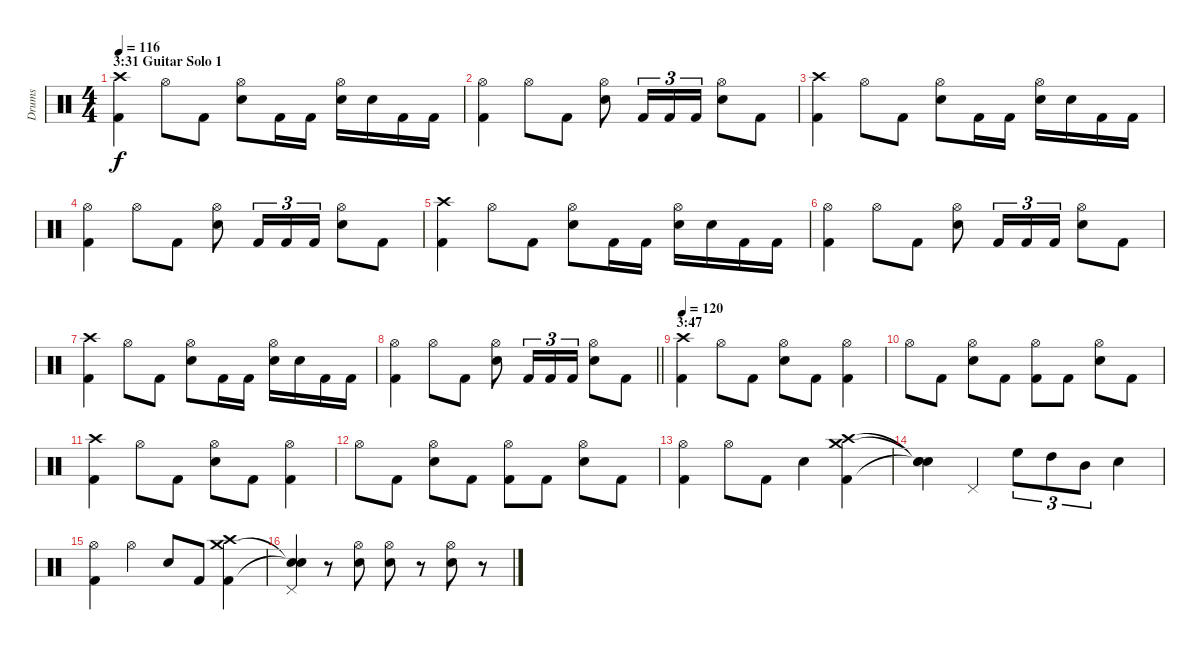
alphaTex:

\track ("Drums" "Drums") {instrument percussion}
\staff {score}
\articulation defaults
\ts (4 4)
\section ("" "3:31 Guitar Solo 1")
\tempo 116
\clef neutral
\ks c
("Crash high (hit)" "Kick (hit) 2").4{dy f} "Hi-Hat (open)".8 "Kick (hit) 2".8 ("Hi-Hat (open)" "Snare (hit) 2").8 "Kick (hit) 2".16 "Kick (hit) 2".16 ("Hi-Hat (open)" "Snare (hit) 2").16 "Snare (hit) 2".16 "Kick (hit) 2".16 "Kick (hit) 2".16 |
("Hi-Hat (open)" "Kick (hit) 2").4 "Hi-Hat (open)".8 "Kick (hit) 2".8 ("Hi-Hat (open)" "Snare (hit) 2").8 "Kick (hit) 2".16{tu (3 2)} "Kick (hit) 2".16{tu (3 2)} "Kick (hit) 2".16{tu (3 2)} ("Hi-Hat (open)" "Snare (hit) 2").8 "Kick (hit) 2".8 |
("Crash high (hit)" "Kick (hit) 2").4 "Hi-Hat (open)".8 "Kick (hit) 2".8 ("Hi-Hat (open)" "Snare (hit) 2").8 "Kick (hit) 2".16 "Kick (hit) 2".16 ("Hi-Hat (open)" "Snare (hit) 2").16 "Snare (hit) 2".16 "Kick (hit) 2".16 "Kick (hit) 2".16 |
("Hi-Hat (open)" "Kick (hit) 2").4 "Hi-Hat (open)".8 "Kick (hit) 2".8 ("Hi-Hat (open)" "Snare (hit) 2").8 "Kick (hit) 2".16{tu (3 2)} "Kick (hit) 2".16{tu (3 2)} "Kick (hit) 2".16{tu (3 2)} ("Hi-Hat (open)" "Snare (hit) 2").8 "Kick (hit) 2".8 |
("Crash high (hit)" "Kick (hit) 2").4 "Hi-Hat (open)".8 "Kick (hit) 2".8 ("Hi-Hat (open)" "Snare (hit) 2").8 "Kick (hit) 2".16 "Kick (hit) 2".16 ("Hi-Hat (open)" "Snare (hit) 2").16 "Snare (hit) 2".16 "Kick (hit) 2".16 "Kick (hit) 2".16 |
("Hi-Hat (open)" "Kick (hit) 2").4 "Hi-Hat (open)".8 "Kick (hit) 2".8 ("Hi-Hat (open)" "Snare (hit) 2").8 "Kick (hit) 2".16{tu (3 2)} "Kick (hit) 2".16{tu (3 2)} "Kick (hit) 2".16{tu (3 2)} ("Hi-Hat (open)" "Snare (hit) 2").8 "Kick (hit) 2".8 |
("Crash high (hit)" "Kick (hit) 2").4 "Hi-Hat (open)".8 "Kick (hit) 2".8 ("Hi-Hat (open)" "Snare (hit) 2").8 "Kick (hit) 2".16 "Kick (hit) 2".16 ("Hi-Hat (open)" "Snare (hit) 2").16 "Snare (hit) 2".16 "Kick (hit) 2".16 "Kick (hit) 2".16 |
\barLineRight lightlight
("Hi-Hat (open)" "Kick (hit) 2").4 "Hi-Hat (open)".8 "Kick (hit) 2".8 ("Hi-Hat (open)" "Snare (hit) 2").8 "Kick (hit) 2".16{tu (3 2)} "Kick (hit) 2".16{tu (3 2)} "Kick (hit) 2".16{tu (3 2)} ("Hi-Hat (open)" "Snare (hit) 2").8 "Kick (hit) 2".8 |
\section ("" "3:47")
\tempo 120
("Crash high (hit)" "Kick (hit) 2").4 "Hi-Hat (open)".8 "Kick (hit) 2".8 ("Hi-Hat (open)" "Snare (hit) 2").8 "Kick (hit) 2".8 ("Hi-Hat (open)" "Kick (hit) 2").4 |
"Hi-Hat (open)".8 "Kick (hit) 2".8 ("Hi-Hat (open)" "Snare (hit) 2").8 "Kick (hit) 2".8 ("Hi-Hat (open)" "Kick (hit) 2").8 "Kick (hit) 2".8 ("Hi-Hat (open)" "Snare (hit) 2").8 "Kick (hit) 2".8 |
("Crash high (hit)" "Kick (hit) 2").4 "Hi-Hat (open)".8 "Kick (hit) 2".8 ("Hi-Hat (open)" "Snare (hit) 2").8 "Kick (hit) 2".8 ("Hi-Hat (open)" "Kick (hit) 2").4 |
"Hi-Hat (open)".8 "Kick (hit) 2".8 ("Hi-Hat (open)" "Snare (hit) 2").8 "Kick (hit) 2".8 ("Hi-Hat (open)" "Kick (hit) 2").8 "Kick (hit) 2".8 ("Hi-Hat (open)" "Snare (hit) 2").8 "Kick (hit) 2".8 |
("Hi-Hat (open)" "Kick (hit) 2").4 "Hi-Hat (open)".8 "Kick (hit) 2".8 "Snare (hit) 2".4 ("Crash medium (hit)" "Crash high (hit)" "Kick (hit) 2").4 |
("Snare (hit)"{t} "Snare (hit)"{t} "Snare (hit)"{t}).4 "Pedal Hi-Hat (hit)".4 "High Floor Tom (hit)".8{tu (3 2)} "High Tom (hit)".8{tu (3 2)} "Mid Tom (hit)".8{tu (3 2)} "Snare (hit) 2".4 |
("Hi-Hat (open)" "Kick (hit) 2").4 "Hi-Hat (open)".4 "Snare (hit) 2".8 "Kick (hit) 2".8 ("Crash medium (hit)" "Crash high (hit)" "Kick (hit) 2").4 |
("Snare (hit)"{t} "Pedal Hi-Hat (hit)" "Snare (hit)"{t}).4 r.8 ("Hi-Hat (open)" "Snare (hit) 2").8 ("Hi-Hat (open)" "Snare (hit) 2").8 r.8 ("Hi-Hat (open)" "Snare (hit) 2").8 r.8
